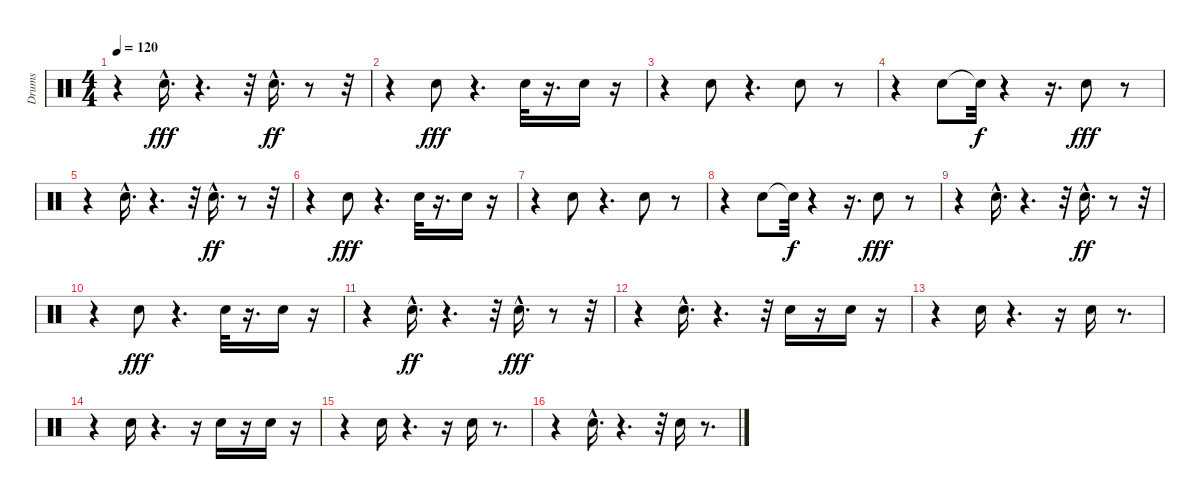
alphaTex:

\track ("Drums" "Drums") {instrument percussion}
\staff {score}
\articulation defaults
\ts (4 4)
\tempo 120
\clef neutral
\ks c
r.4{dy fff} "Electric Snare (hit)"{hac}.16{d} r.4{d} r.32 "Electric Snare (hit)"{hac}.16{d dy ff} r.8 r.32 |
r.4 "Electric Snare (hit)".8{dy fff} r.4{d} "Electric Snare (hit)".32 r.16{d} "Electric Snare (hit)".16 r.16 |
r.4 "Electric Snare (hit)".8 r.4{d} "Electric Snare (hit)".8 r.8 |
r.4 "Electric Snare (hit)".8 "Snare (hit)"{t}.32{dy f} r.4 r.16{d} "Electric Snare (hit)".8{dy fff} r.8 |
r.4 "Electric Snare (hit)"{hac}.16{d} r.4{d} r.32 "Electric Snare (hit)"{hac}.16{d dy ff} r.8 r.32 |
r.4 "Electric Snare (hit)".8{dy fff} r.4{d} "Electric Snare (hit)".32 r.16{d} "Electric Snare (hit)".16 r.16 |
r.4 "Electric Snare (hit)".8 r.4{d} "Electric Snare (hit)".8 r.8 |
r.4 "Electric Snare (hit)".8 "Snare (hit)"{t}.32{dy f} r.4 r.16{d} "Electric Snare (hit)".8{dy fff} r.8 |
r.4 "Electric Snare (hit)"{hac}.16{d} r.4{d} r.32 "Electric Snare (hit)"{hac}.16{d dy ff} r.8 r.32 |
r.4 "Electric Snare (hit)".8{dy fff} r.4{d} "Electric Snare (hit)".32 r.16{d} "Electric Snare (hit)".16 r.16 |
r.4 "Electric Snare (hit)"{hac}.16{d dy ff} r.4{d} r.32 "Electric Snare (hit)"{hac}.16{d dy fff} r.8 r.32 |
r.4 "Electric Snare (hit)"{hac}.16{d} r.4{d} r.32 "Electric Snare (hit)".16 r.16 "Electric Snare (hit)".16 r.16 |
r.4 "Electric Snare (hit)".16 r.4{d} r.16 "Electric Snare (hit)".16 r.8{d} |
r.4 "Electric Snare (hit)".16 r.4{d} r.16 "Electric Snare (hit)".16 r.16 "Electric Snare (hit)".16 r.16 |
r.4 "Electric Snare (hit)".16 r.4{d} r.16 "Electric Snare (hit)".16 r.8{d} |
r.4 "Electric Snare (hit)"{hac}.16{d} r.4{d} r.32 "Electric Snare (hit)".16 r.8{d}
